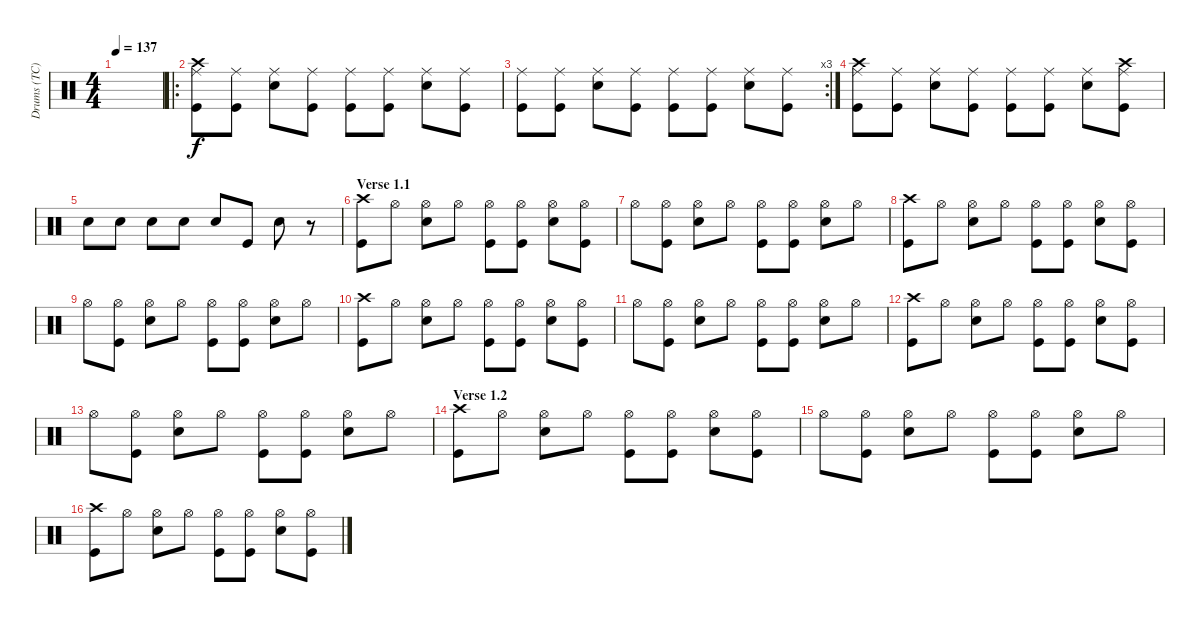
\track ("Drums (TC)" "Drums (TC)") {instrument percussion}
\staff {score}
\articulation defaults
\ts (4 4)
\tempo 137
\clef neutral
\ks c
|
\ro
("Ride (middle)" "Crash high (hit)" "Kick (hit)").8 ("Ride (middle)" "Kick (hit)").8 ("Ride (middle)" "Snare (hit) 2").8 ("Ride (middle)" "Kick (hit)").8 ("Ride (middle)" "Kick (hit)").8 ("Ride (middle)" "Kick (hit)").8 ("Ride (middle)" "Snare (hit) 2").8 ("Ride (middle)" "Kick (hit)").8 |
\rc 3
("Ride (middle)" "Kick (hit)").8 ("Ride (middle)" "Kick (hit)").8 ("Ride (middle)" "Snare (hit) 2").8 ("Ride (middle)" "Kick (hit)").8 ("Ride (middle)" "Kick (hit)").8 ("Ride (middle)" "Kick (hit)").8 ("Ride (middle)" "Snare (hit) 2").8 ("Ride (middle)" "Kick (hit)").8 |
("Ride (middle)" "Crash high (hit)" "Kick (hit)").8 ("Ride (middle)" "Kick (hit)").8 ("Ride (middle)" "Snare (hit) 2").8 ("Ride (middle)" "Kick (hit)").8 ("Ride (middle)" "Kick (hit)").8 ("Ride (middle)" "Kick (hit)").8 ("Ride (middle)" "Snare (hit) 2").8 ("Ride (middle)" "Crash high (hit)" "Kick (hit)").8 |
"Snare (hit) 2".8 "Snare (hit) 2".8 "Snare (hit) 2".8 "Snare (hit) 2".8 "Snare (hit) 2".8 "Kick (hit)".8 "Snare (hit) 2".8 r.8 |
\section ("" "Verse 1.1")
("Crash high (hit)" "Kick (hit)").8 "Hi-Hat (open)".8 ("Snare (hit) 2" "Hi-Hat (open)").8 "Hi-Hat (open)".8 ("Hi-Hat (open)" "Kick (hit)").8 ("Hi-Hat (open)" "Kick (hit)").8 ("Snare (hit) 2" "Hi-Hat (open)").8 ("Hi-Hat (open)" "Kick (hit)").8 |
"Hi-Hat (open)".8 ("Hi-Hat (open)" "Kick (hit)").8 ("Snare (hit) 2" "Hi-Hat (open)").8 "Hi-Hat (open)".8 ("Hi-Hat (open)" "Kick (hit)").8 ("Hi-Hat (open)" "Kick (hit)").8 ("Snare (hit) 2" "Hi-Hat (open)").8 "Hi-Hat (open)".8 |
("Crash high (hit)" "Kick (hit)").8 "Hi-Hat (open)".8 ("Snare (hit) 2" "Hi-Hat (open)").8 "Hi-Hat (open)".8 ("Hi-Hat (open)" "Kick (hit)").8 ("Hi-Hat (open)" "Kick (hit)").8 ("Snare (hit) 2" "Hi-Hat (open)").8 ("Hi-Hat (open)" "Kick (hit)").8 |
"Hi-Hat (open)".8 ("Hi-Hat (open)" "Kick (hit)").8 ("Snare (hit) 2" "Hi-Hat (open)").8 "Hi-Hat (open)".8 ("Hi-Hat (open)" "Kick (hit)").8 ("Hi-Hat (open)" "Kick (hit)").8 ("Snare (hit) 2" "Hi-Hat (open)").8 "Hi-Hat (open)".8 |
("Crash high (hit)" "Kick (hit)").8 "Hi-Hat (open)".8 ("Snare (hit) 2" "Hi-Hat (open)").8 "Hi-Hat (open)".8 ("Hi-Hat (open)" "Kick (hit)").8 ("Hi-Hat (open)" "Kick (hit)").8 ("Snare (hit) 2" "Hi-Hat (open)").8 ("Hi-Hat (open)" "Kick (hit)").8 |
"Hi-Hat (open)".8 ("Hi-Hat (open)" "Kick (hit)").8 ("Snare (hit) 2" "Hi-Hat (open)").8 "Hi-Hat (open)".8 ("Hi-Hat (open)" "Kick (hit)").8 ("Hi-Hat (open)" "Kick (hit)").8 ("Snare (hit) 2" "Hi-Hat (open)").8 "Hi-Hat (open)".8 |
("Crash high (hit)" "Kick (hit)").8 "Hi-Hat (open)".8 ("Snare (hit) 2" "Hi-Hat (open)").8 "Hi-Hat (open)".8 ("Hi-Hat (open)" "Kick (hit)").8 ("Hi-Hat (open)" "Kick (hit)").8 ("Snare (hit) 2" "Hi-Hat (open)").8 ("Hi-Hat (open)" "Kick (hit)").8 |
"Hi-Hat (open)".8 ("Hi-Hat (open)" "Kick (hit)").8 ("Snare (hit) 2" "Hi-Hat (open)").8 "Hi-Hat (open)".8 ("Hi-Hat (open)" "Kick (hit)").8 ("Hi-Hat (open)" "Kick (hit)").8 ("Snare (hit) 2" "Hi-Hat (open)").8 "Hi-Hat (open)".8 |
\section ("" "Verse 1.2")
("Crash high (hit)" "Kick (hit)").8 "Hi-Hat (open)".8 ("Snare (hit) 2" "Hi-Hat (open)").8 "Hi-Hat (open)".8 ("Hi-Hat (open)" "Kick (hit)").8 ("Hi-Hat (open)" "Kick (hit)").8 ("Snare (hit) 2" "Hi-Hat (open)").8 ("Hi-Hat (open)" "Kick (hit)").8 |
"Hi-Hat (open)".8 ("Hi-Hat (open)" "Kick (hit)").8 ("Snare (hit) 2" "Hi-Hat (open)").8 "Hi-Hat (open)".8 ("Hi-Hat (open)" "Kick (hit)").8 ("Hi-Hat (open)" "Kick (hit)").8 ("Snare (hit) 2" "Hi-Hat (open)").8 "Hi-Hat (open)".8 |
("Crash high (hit)" "Kick (hit)").8 "Hi-Hat (open)".8 ("Snare (hit) 2" "Hi-Hat (open)").8 "Hi-Hat (open)".8 ("Hi-Hat (open)" "Kick (hit)").8 ("Hi-Hat (open)" "Kick (hit)").8 ("Snare (hit) 2" "Hi-Hat (open)").8 ("Hi-Hat (open)" "Kick (hit)").8
